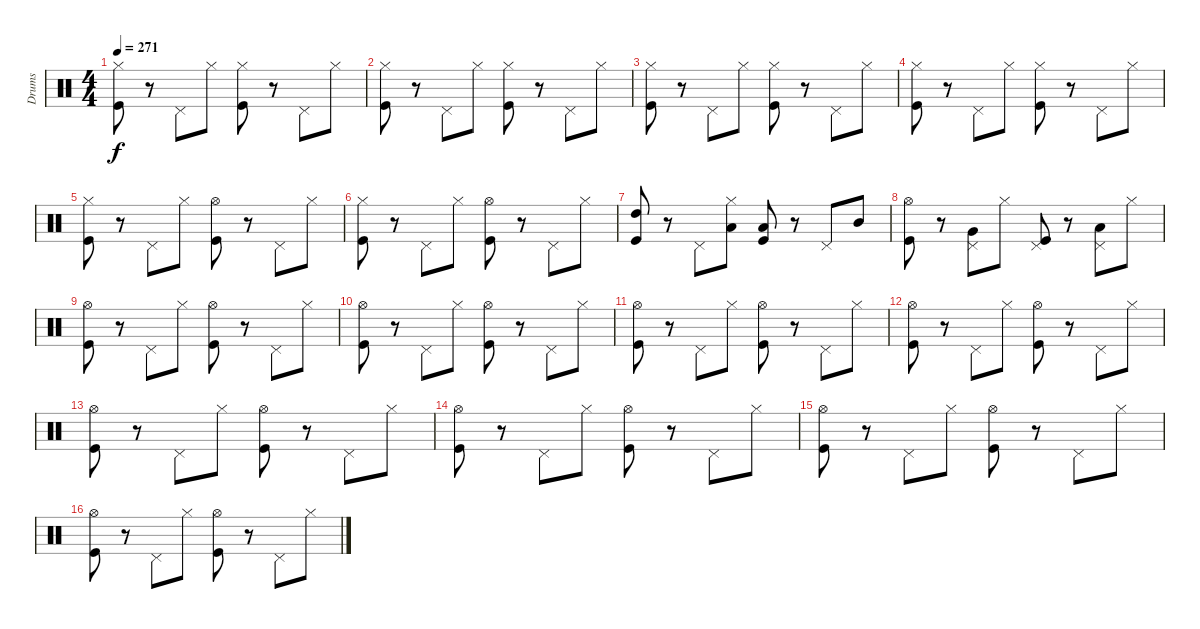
\track ("Drums" "Drums") {instrument percussion}
\staff {score}
\articulation defaults
\ts (4 4)
\tempo 271
\clef neutral
\ks c
("Hi-Hat (closed)" "Kick (hit)").8{dy f} r.8 "Pedal Hi-Hat (hit)".8 "Hi-Hat (closed)".8 ("Hi-Hat (closed)" "Kick (hit)").8 r.8 "Pedal Hi-Hat (hit)".8 "Hi-Hat (closed)".8 |
("Hi-Hat (closed)" "Kick (hit)").8 r.8 "Pedal Hi-Hat (hit)".8 "Hi-Hat (closed)".8 ("Hi-Hat (closed)" "Kick (hit)").8 r.8 "Pedal Hi-Hat (hit)".8 "Hi-Hat (closed)".8 |
("Hi-Hat (closed)" "Kick (hit)").8 r.8 "Pedal Hi-Hat (hit)".8 "Hi-Hat (closed)".8 ("Hi-Hat (closed)" "Kick (hit)").8 r.8 "Pedal Hi-Hat (hit)".8 "Hi-Hat (closed)".8 |
("Hi-Hat (closed)" "Kick (hit)").8 r.8 "Pedal Hi-Hat (hit)".8 "Hi-Hat (closed)".8 ("Hi-Hat (closed)" "Kick (hit)").8 r.8 "Pedal Hi-Hat (hit)".8 "Hi-Hat (closed)".8 |
("Hi-Hat (closed)" "Kick (hit)").8 r.8 "Pedal Hi-Hat (hit)".8 "Hi-Hat (closed)".8 ("Hi-Hat (open)" "Kick (hit)").8 r.8 "Pedal Hi-Hat (hit)".8 "Hi-Hat (closed)".8 |
("Hi-Hat (closed)" "Kick (hit)").8 r.8 "Pedal Hi-Hat (hit)".8 "Hi-Hat (closed)".8 ("Hi-Hat (open)" "Kick (hit)").8 r.8 "Pedal Hi-Hat (hit)".8 "Hi-Hat (closed)".8 |
("High Tom (hit)" "Kick (hit)").8 r.8 "Pedal Hi-Hat (hit)".8 ("Hi-Hat (closed)" "Low Tom (hit)").8 ("Low Tom (hit)" "Kick (hit)").8 r.8 "Pedal Hi-Hat (hit)".8 "Mid Tom (hit)".8 |
("Hi-Hat (open)" "Kick (hit)").8 r.8 ("Pedal Hi-Hat (hit)" "Very Low Tom (hit)").8 "Hi-Hat (closed)".8 ("Pedal Hi-Hat (hit)" "Kick (hit)").8 r.8 ("Pedal Hi-Hat (hit)" "Low Floor Tom (hit)").8 "Hi-Hat (closed)".8 |
("Hi-Hat (open)" "Kick (hit)").8 r.8 "Pedal Hi-Hat (hit)".8 "Hi-Hat (closed)".8 ("Hi-Hat (open)" "Kick (hit)").8 r.8 "Pedal Hi-Hat (hit)".8 "Hi-Hat (closed)".8 |
("Hi-Hat (open)" "Kick (hit)").8 r.8 "Pedal Hi-Hat (hit)".8 "Hi-Hat (closed)".8 ("Hi-Hat (open)" "Kick (hit)").8 r.8 "Pedal Hi-Hat (hit)".8 "Hi-Hat (closed)".8 |
("Hi-Hat (open)" "Kick (hit)").8 r.8 "Pedal Hi-Hat (hit)".8 "Hi-Hat (closed)".8 ("Hi-Hat (open)" "Kick (hit)").8 r.8 "Pedal Hi-Hat (hit)".8 "Hi-Hat (closed)".8 |
("Hi-Hat (open)" "Kick (hit)").8 r.8 "Pedal Hi-Hat (hit)".8 "Hi-Hat (closed)".8 ("Hi-Hat (open)" "Kick (hit)").8 r.8 "Pedal Hi-Hat (hit)".8 "Hi-Hat (closed)".8 |
("Hi-Hat (open)" "Kick (hit)").8 r.8 "Pedal Hi-Hat (hit)".8 "Hi-Hat (closed)".8 ("Hi-Hat (open)" "Kick (hit)").8 r.8 "Pedal Hi-Hat (hit)".8 "Hi-Hat (closed)".8 |
("Hi-Hat (open)" "Kick (hit)").8 r.8 "Pedal Hi-Hat (hit)".8 "Hi-Hat (closed)".8 ("Hi-Hat (open)" "Kick (hit)").8 r.8 "Pedal Hi-Hat (hit)".8 "Hi-Hat (closed)".8 |
("Hi-Hat (open)" "Kick (hit)").8 r.8 "Pedal Hi-Hat (hit)".8 "Hi-Hat (closed)".8 ("Hi-Hat (open)" "Kick (hit)").8 r.8 "Pedal Hi-Hat (hit)".8 "Hi-Hat (closed)".8 |
("Hi-Hat (open)" "Kick (hit)").8 r.8 "Pedal Hi-Hat (hit)".8 "Hi-Hat (closed)".8 ("Hi-Hat (open)" "Kick (hit)").8 r.8 "Pedal Hi-Hat (hit)".8 "Hi-Hat (closed)".8
